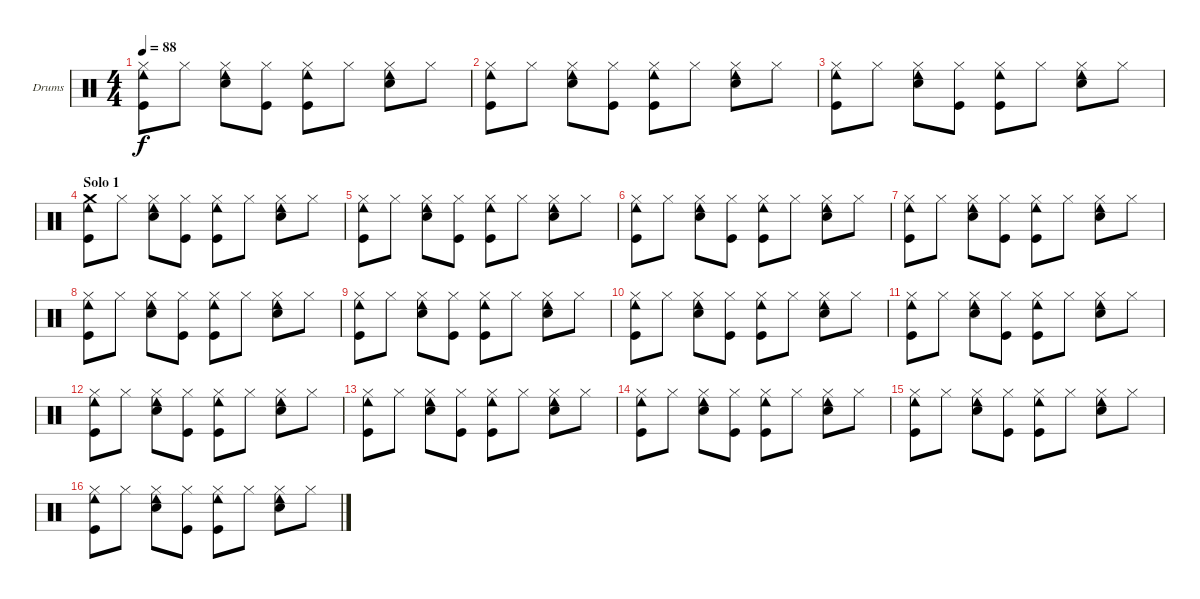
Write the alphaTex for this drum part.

\bracketExtendMode groupsimilarinstruments
\firstSystemTrackNameOrientation horizontal
\otherSystemsTrackNameOrientation horizontal
\track ("Drumkit" "Drums") {instrument percussion}
\staff {score}
\articulation defaults
\ts (4 4)
\tempo 88
\clef neutral
\ks c
("Kick (hit)" "Hi-Hat (closed)" "Cowbell low (hit)").8{dy f} "Hi-Hat (closed)".8 ("Snare (hit) 2" "Hi-Hat (closed)" "Cowbell low (hit)").8 ("Kick (hit)" "Hi-Hat (closed)").8 ("Kick (hit)" "Hi-Hat (closed)" "Cowbell low (hit)").8 "Hi-Hat (closed)".8 ("Snare (hit) 2" "Hi-Hat (closed)" "Cowbell low (hit)").8 "Hi-Hat (closed)".8 |
("Kick (hit)" "Hi-Hat (closed)" "Cowbell low (hit)").8 "Hi-Hat (closed)".8 ("Snare (hit) 2" "Hi-Hat (closed)" "Cowbell low (hit)").8 ("Kick (hit)" "Hi-Hat (closed)").8 ("Kick (hit)" "Hi-Hat (closed)" "Cowbell low (hit)").8 "Hi-Hat (closed)".8 ("Snare (hit) 2" "Hi-Hat (closed)" "Cowbell low (hit)").8 "Hi-Hat (closed)".8 |
("Kick (hit)" "Hi-Hat (closed)" "Cowbell low (hit)").8 "Hi-Hat (closed)".8 ("Snare (hit) 2" "Hi-Hat (closed)" "Cowbell low (hit)").8 ("Kick (hit)" "Hi-Hat (closed)").8 ("Kick (hit)" "Hi-Hat (closed)" "Cowbell low (hit)").8 "Hi-Hat (closed)".8 ("Snare (hit) 2" "Hi-Hat (closed)" "Cowbell low (hit)").8 "Hi-Hat (closed)".8 |
\section ("" "Solo 1")
("Kick (hit)" "Cowbell low (hit)" "Crash medium (hit)").8 "Hi-Hat (closed)".8 ("Snare (hit) 2" "Hi-Hat (closed)" "Cowbell low (hit)").8 ("Kick (hit)" "Hi-Hat (closed)").8 ("Kick (hit)" "Cowbell low (hit)" "Hi-Hat (closed)").8 "Hi-Hat (closed)".8 ("Snare (hit) 2" "Hi-Hat (closed)" "Cowbell low (hit)").8 "Hi-Hat (closed)".8 |
("Kick (hit)" "Hi-Hat (closed)" "Cowbell low (hit)").8 "Hi-Hat (closed)".8 ("Snare (hit) 2" "Hi-Hat (closed)" "Cowbell low (hit)").8 ("Kick (hit)" "Hi-Hat (closed)").8 ("Kick (hit)" "Hi-Hat (closed)" "Cowbell low (hit)").8 "Hi-Hat (closed)".8 ("Snare (hit) 2" "Hi-Hat (closed)" "Cowbell low (hit)").8 "Hi-Hat (closed)".8 |
("Kick (hit)" "Hi-Hat (closed)" "Cowbell low (hit)").8 "Hi-Hat (closed)".8 ("Snare (hit) 2" "Hi-Hat (closed)" "Cowbell low (hit)").8 ("Kick (hit)" "Hi-Hat (closed)").8 ("Kick (hit)" "Hi-Hat (closed)" "Cowbell low (hit)").8 "Hi-Hat (closed)".8 ("Snare (hit) 2" "Hi-Hat (closed)" "Cowbell low (hit)").8 "Hi-Hat (closed)".8 |
("Kick (hit)" "Hi-Hat (closed)" "Cowbell low (hit)").8 "Hi-Hat (closed)".8 ("Snare (hit) 2" "Hi-Hat (closed)" "Cowbell low (hit)").8 ("Kick (hit)" "Hi-Hat (closed)").8 ("Kick (hit)" "Hi-Hat (closed)" "Cowbell low (hit)").8 "Hi-Hat (closed)".8 ("Snare (hit) 2" "Hi-Hat (closed)" "Cowbell low (hit)").8 "Hi-Hat (closed)".8 |
("Kick (hit)" "Hi-Hat (closed)" "Cowbell low (hit)").8 "Hi-Hat (closed)".8 ("Snare (hit) 2" "Hi-Hat (closed)" "Cowbell low (hit)").8 ("Kick (hit)" "Hi-Hat (closed)").8 ("Kick (hit)" "Hi-Hat (closed)" "Cowbell low (hit)").8 "Hi-Hat (closed)".8 ("Snare (hit) 2" "Hi-Hat (closed)" "Cowbell low (hit)").8 "Hi-Hat (closed)".8 |
("Kick (hit)" "Hi-Hat (closed)" "Cowbell low (hit)").8 "Hi-Hat (closed)".8 ("Snare (hit) 2" "Hi-Hat (closed)" "Cowbell low (hit)").8 ("Kick (hit)" "Hi-Hat (closed)").8 ("Kick (hit)" "Hi-Hat (closed)" "Cowbell low (hit)").8 "Hi-Hat (closed)".8 ("Snare (hit) 2" "Hi-Hat (closed)" "Cowbell low (hit)").8 "Hi-Hat (closed)".8 |
("Kick (hit)" "Hi-Hat (closed)" "Cowbell low (hit)").8 "Hi-Hat (closed)".8 ("Snare (hit) 2" "Hi-Hat (closed)" "Cowbell low (hit)").8 ("Kick (hit)" "Hi-Hat (closed)").8 ("Kick (hit)" "Hi-Hat (closed)" "Cowbell low (hit)").8 "Hi-Hat (closed)".8 ("Snare (hit) 2" "Hi-Hat (closed)" "Cowbell low (hit)").8 "Hi-Hat (closed)".8 |
("Kick (hit)" "Hi-Hat (closed)" "Cowbell low (hit)").8 "Hi-Hat (closed)".8 ("Snare (hit) 2" "Hi-Hat (closed)" "Cowbell low (hit)").8 ("Kick (hit)" "Hi-Hat (closed)").8 ("Kick (hit)" "Hi-Hat (closed)" "Cowbell low (hit)").8 "Hi-Hat (closed)".8 ("Snare (hit) 2" "Hi-Hat (closed)" "Cowbell low (hit)").8 "Hi-Hat (closed)".8 |
("Kick (hit)" "Hi-Hat (closed)" "Cowbell low (hit)").8 "Hi-Hat (closed)".8 ("Snare (hit) 2" "Hi-Hat (closed)" "Cowbell low (hit)").8 ("Kick (hit)" "Hi-Hat (closed)").8 ("Kick (hit)" "Hi-Hat (closed)" "Cowbell low (hit)").8 "Hi-Hat (closed)".8 ("Snare (hit) 2" "Hi-Hat (closed)" "Cowbell low (hit)").8 "Hi-Hat (closed)".8 |
("Kick (hit)" "Hi-Hat (closed)" "Cowbell low (hit)").8 "Hi-Hat (closed)".8 ("Snare (hit) 2" "Hi-Hat (closed)" "Cowbell low (hit)").8 ("Kick (hit)" "Hi-Hat (closed)").8 ("Kick (hit)" "Hi-Hat (closed)" "Cowbell low (hit)").8 "Hi-Hat (closed)".8 ("Snare (hit) 2" "Hi-Hat (closed)" "Cowbell low (hit)").8 "Hi-Hat (closed)".8 |
("Kick (hit)" "Hi-Hat (closed)" "Cowbell low (hit)").8 "Hi-Hat (closed)".8 ("Snare (hit) 2" "Hi-Hat (closed)" "Cowbell low (hit)").8 ("Kick (hit)" "Hi-Hat (closed)").8 ("Kick (hit)" "Hi-Hat (closed)" "Cowbell low (hit)").8 "Hi-Hat (closed)".8 ("Snare (hit) 2" "Hi-Hat (closed)" "Cowbell low (hit)").8 "Hi-Hat (closed)".8 |
("Kick (hit)" "Hi-Hat (closed)" "Cowbell low (hit)").8 "Hi-Hat (closed)".8 ("Snare (hit) 2" "Hi-Hat (closed)" "Cowbell low (hit)").8 ("Kick (hit)" "Hi-Hat (closed)").8 ("Kick (hit)" "Hi-Hat (closed)" "Cowbell low (hit)").8 "Hi-Hat (closed)".8 ("Snare (hit) 2" "Hi-Hat (closed)" "Cowbell low (hit)").8 "Hi-Hat (closed)".8 |
("Kick (hit)" "Hi-Hat (closed)" "Cowbell low (hit)").8 "Hi-Hat (closed)".8 ("Snare (hit) 2" "Hi-Hat (closed)" "Cowbell low (hit)").8 ("Kick (hit)" "Hi-Hat (closed)").8 ("Kick (hit)" "Hi-Hat (closed)" "Cowbell low (hit)").8 "Hi-Hat (closed)".8 ("Snare (hit) 2" "Hi-Hat (closed)" "Cowbell low (hit)").8 "Hi-Hat (closed)".8
